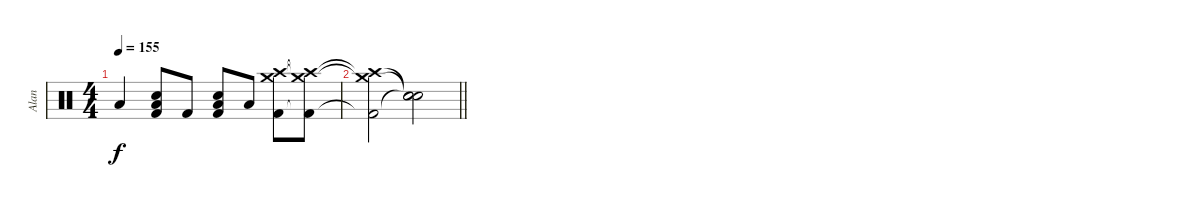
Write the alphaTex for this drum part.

\track ("Alan" "Alan") {instrument percussion}
\staff {score}
\articulation defaults
\ts (4 4)
\tempo 155
\clef neutral
\ks c "Low Tom (hit)".4{dy f}
("Kick (hit) 2" "Snare (hit) 2" "Low Floor Tom (hit)").8 "Kick (hit) 2".8 ("Kick (hit) 2" "Snare (hit) 2" "Low Floor Tom (hit)").8 "Low Floor Tom (hit)".8 ("Crash medium (hit)" "Crash high (hit)" "Kick (hit) 2").8 ("Crash medium (hit)"{t} "Crash high (hit)"{t} "Kick (hit) 2"{t}).8 |
\barLineRight lightlight
("Crash medium (hit)"{t} "Crash high (hit)"{t} "Kick (hit) 2"{t}).2 ("Snare (hit)"{t} "Snare (hit)"{t} "Snare (hit)"{t}).2
